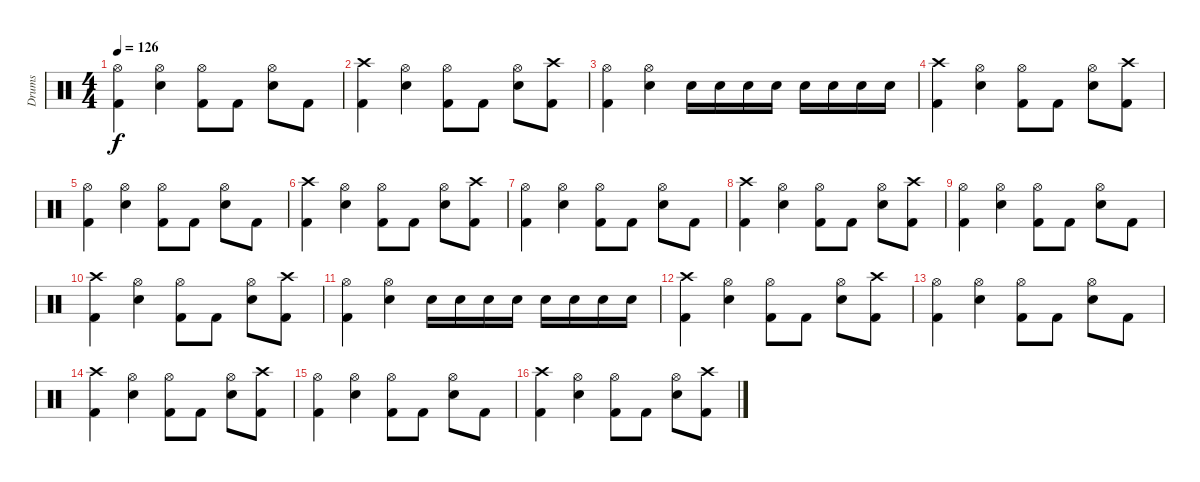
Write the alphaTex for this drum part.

\track ("Drums" "Drums") {instrument percussion}
\staff {score}
\articulation defaults
\ts (4 4)
\tempo 126
\clef neutral
\ks c
("Hi-Hat (open)" "Kick (hit) 2").4{dy f} ("Hi-Hat (open)" "Snare (hit) 2").4 ("Hi-Hat (open)" "Kick (hit) 2").8 "Kick (hit) 2".8 ("Hi-Hat (open)" "Snare (hit) 2").8 "Kick (hit) 2".8 |
("Crash high (hit)" "Kick (hit) 2").4 ("Hi-Hat (open)" "Snare (hit) 2").4 ("Hi-Hat (open)" "Kick (hit) 2").8 "Kick (hit) 2".8 ("Hi-Hat (open)" "Snare (hit) 2").8 ("Crash high (hit)" "Kick (hit) 2").8 |
("Hi-Hat (open)" "Kick (hit) 2").4 ("Hi-Hat (open)" "Snare (hit) 2").4 "Snare (hit) 2".16 "Snare (hit) 2".16 "Snare (hit) 2".16 "Snare (hit) 2".16 "Snare (hit) 2".16 "Snare (hit) 2".16 "Snare (hit) 2".16 "Snare (hit) 2".16 |
("Crash high (hit)" "Kick (hit) 2").4 ("Hi-Hat (open)" "Snare (hit) 2").4 ("Hi-Hat (open)" "Kick (hit) 2").8 "Kick (hit) 2".8 ("Hi-Hat (open)" "Snare (hit) 2").8 ("Crash high (hit)" "Kick (hit) 2").8 |
("Hi-Hat (open)" "Kick (hit) 2").4 ("Hi-Hat (open)" "Snare (hit) 2").4 ("Hi-Hat (open)" "Kick (hit) 2").8 "Kick (hit) 2".8 ("Hi-Hat (open)" "Snare (hit) 2").8 "Kick (hit) 2".8 |
("Crash high (hit)" "Kick (hit) 2").4 ("Hi-Hat (open)" "Snare (hit) 2").4 ("Hi-Hat (open)" "Kick (hit) 2").8 "Kick (hit) 2".8 ("Hi-Hat (open)" "Snare (hit) 2").8 ("Crash high (hit)" "Kick (hit) 2").8 |
("Hi-Hat (open)" "Kick (hit) 2").4 ("Hi-Hat (open)" "Snare (hit) 2").4 ("Hi-Hat (open)" "Kick (hit) 2").8 "Kick (hit) 2".8 ("Hi-Hat (open)" "Snare (hit) 2").8 "Kick (hit) 2".8 |
("Crash high (hit)" "Kick (hit) 2").4 ("Hi-Hat (open)" "Snare (hit) 2").4 ("Hi-Hat (open)" "Kick (hit) 2").8 "Kick (hit) 2".8 ("Hi-Hat (open)" "Snare (hit) 2").8 ("Crash high (hit)" "Kick (hit) 2").8 |
("Hi-Hat (open)" "Kick (hit) 2").4 ("Hi-Hat (open)" "Snare (hit) 2").4 ("Hi-Hat (open)" "Kick (hit) 2").8 "Kick (hit) 2".8 ("Hi-Hat (open)" "Snare (hit) 2").8 "Kick (hit) 2".8 |
("Crash high (hit)" "Kick (hit) 2").4 ("Hi-Hat (open)" "Snare (hit) 2").4 ("Hi-Hat (open)" "Kick (hit) 2").8 "Kick (hit) 2".8 ("Hi-Hat (open)" "Snare (hit) 2").8 ("Crash high (hit)" "Kick (hit) 2").8 |
("Hi-Hat (open)" "Kick (hit) 2").4 ("Hi-Hat (open)" "Snare (hit) 2").4 "Snare (hit) 2".16 "Snare (hit) 2".16 "Snare (hit) 2".16 "Snare (hit) 2".16 "Snare (hit) 2".16 "Snare (hit) 2".16 "Snare (hit) 2".16 "Snare (hit) 2".16 |
("Crash high (hit)" "Kick (hit) 2").4 ("Hi-Hat (open)" "Snare (hit) 2").4 ("Hi-Hat (open)" "Kick (hit) 2").8 "Kick (hit) 2".8 ("Hi-Hat (open)" "Snare (hit) 2").8 ("Crash high (hit)" "Kick (hit) 2").8 |
("Hi-Hat (open)" "Kick (hit) 2").4 ("Hi-Hat (open)" "Snare (hit) 2").4 ("Hi-Hat (open)" "Kick (hit) 2").8 "Kick (hit) 2".8 ("Hi-Hat (open)" "Snare (hit) 2").8 "Kick (hit) 2".8 |
("Crash high (hit)" "Kick (hit) 2").4 ("Hi-Hat (open)" "Snare (hit) 2").4 ("Hi-Hat (open)" "Kick (hit) 2").8 "Kick (hit) 2".8 ("Hi-Hat (open)" "Snare (hit) 2").8 ("Crash high (hit)" "Kick (hit) 2").8 |
("Hi-Hat (open)" "Kick (hit) 2").4 ("Hi-Hat (open)" "Snare (hit) 2").4 ("Hi-Hat (open)" "Kick (hit) 2").8 "Kick (hit) 2".8 ("Hi-Hat (open)" "Snare (hit) 2").8 "Kick (hit) 2".8 |
("Crash high (hit)" "Kick (hit) 2").4 ("Hi-Hat (open)" "Snare (hit) 2").4 ("Hi-Hat (open)" "Kick (hit) 2").8 "Kick (hit) 2".8 ("Hi-Hat (open)" "Snare (hit) 2").8 ("Crash high (hit)" "Kick (hit) 2").8
